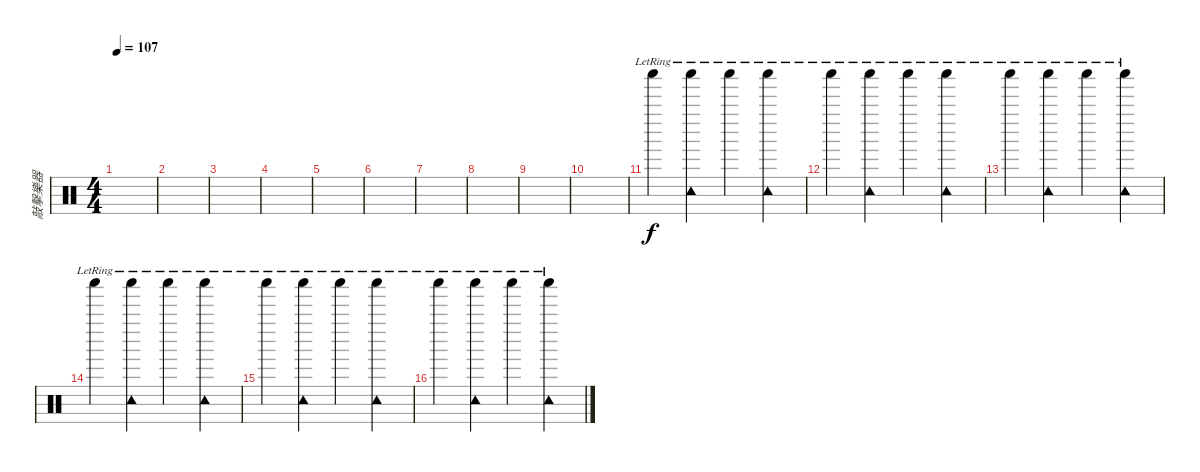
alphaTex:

\track ("敲擊樂器" "敲擊樂器") {instrument percussion}
\staff {score}
\articulation defaults
\ts (4 4)
\tempo 107
\clef neutral
\ks c
|
|
|
|
|
|
|
|
|
|
"Shaker (hit)"{lr}.4 ("Tambourine (hit)"{lr} "Shaker (hit)"{lr}).4 "Shaker (hit)"{lr}.4 ("Tambourine (hit)"{lr} "Shaker (hit)"{lr}).4 |
"Shaker (hit)"{lr}.4 ("Tambourine (hit)"{lr} "Shaker (hit)"{lr}).4 "Shaker (hit)"{lr}.4 ("Tambourine (hit)"{lr} "Shaker (hit)"{lr}).4 |
"Shaker (hit)"{lr}.4 ("Tambourine (hit)"{lr} "Shaker (hit)"{lr}).4 "Shaker (hit)"{lr}.4 ("Tambourine (hit)"{lr} "Shaker (hit)"{lr}).4 |
"Shaker (hit)"{lr}.4 ("Tambourine (hit)"{lr} "Shaker (hit)"{lr}).4 "Shaker (hit)"{lr}.4 ("Tambourine (hit)"{lr} "Shaker (hit)"{lr}).4 |
"Shaker (hit)"{lr}.4 ("Tambourine (hit)"{lr} "Shaker (hit)"{lr}).4 "Shaker (hit)"{lr}.4 ("Tambourine (hit)"{lr} "Shaker (hit)"{lr}).4 |
"Shaker (hit)"{lr}.4 ("Tambourine (hit)"{lr} "Shaker (hit)"{lr}).4 "Shaker (hit)"{lr}.4 ("Tambourine (hit)"{lr} "Shaker (hit)"{lr}).4
